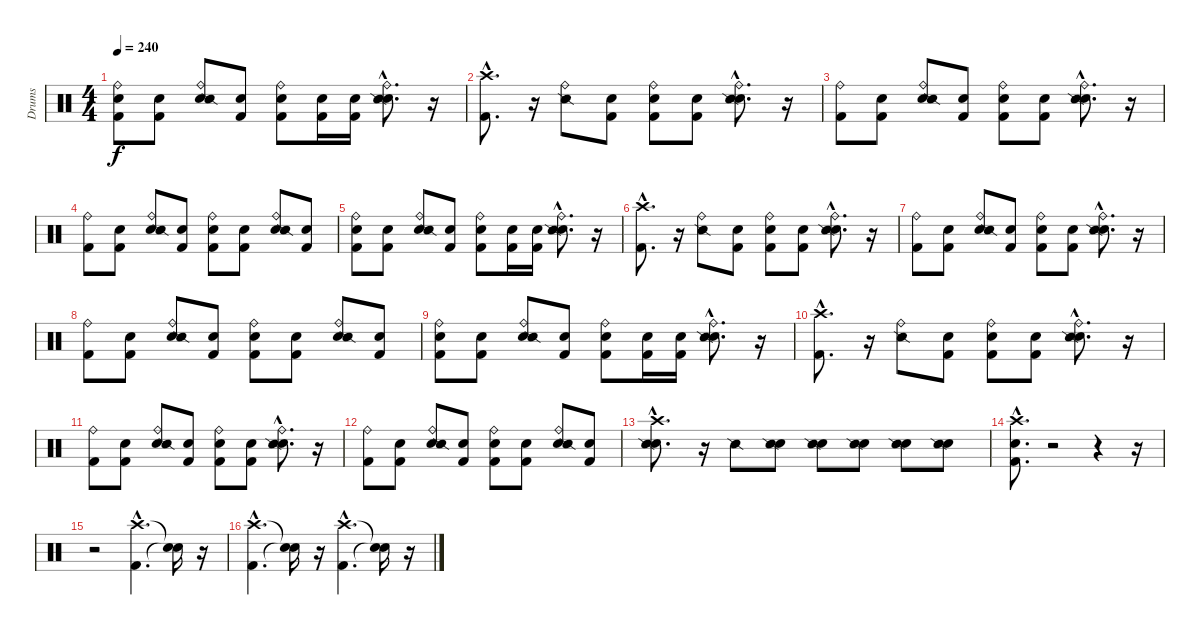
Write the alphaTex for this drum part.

\track ("Drums" "Drums") {instrument percussion}
\staff {score}
\articulation defaults
\ts (4 4)
\tempo 240
\clef neutral
\ks c
("Snare (hit)" "Kick (hit) 2" "Ride (bell)").8{dy f} ("Snare (hit)" "Kick (hit) 2").8 ("Snare (hit)" "Ride (bell)" "Snare (side stick) 2").8 ("Snare (hit)" "Kick (hit) 2").8 ("Snare (hit)" "Kick (hit) 2" "Ride (bell)").8 ("Snare (hit)" "Kick (hit) 2").16 ("Snare (hit)" "Kick (hit) 2").16 ("Snare (hit)"{hac} "Snare (side stick) 2"{hac} "Ride (bell)"{hac}).8{d} r.16 |
("Kick (hit) 2"{hac} "Crash high (hit)"{hac}).8{d} r.16 ("Ride (bell)" "Snare (side stick) 2").8 ("Snare (hit)" "Kick (hit) 2").8 ("Snare (hit)" "Kick (hit) 2" "Ride (bell)").8 ("Snare (hit)" "Kick (hit) 2").8 ("Snare (hit)"{hac} "Snare (side stick) 2"{hac} "Ride (bell)"{hac}).8{d} r.16 |
("Kick (hit) 2" "Ride (bell)").8 ("Snare (hit)" "Kick (hit) 2").8 ("Snare (hit)" "Ride (bell)" "Snare (side stick) 2").8 ("Snare (hit)" "Kick (hit) 2").8 ("Snare (hit)" "Kick (hit) 2" "Ride (bell)").8 ("Snare (hit)" "Kick (hit) 2").8 ("Snare (hit)"{hac} "Snare (side stick) 2"{hac} "Ride (bell)"{hac}).8{d} r.16 |
("Kick (hit) 2" "Ride (bell)").8 ("Snare (hit)" "Kick (hit) 2").8 ("Snare (hit)" "Ride (bell)" "Snare (side stick) 2").8 ("Snare (hit)" "Kick (hit) 2").8 ("Snare (hit)" "Kick (hit) 2" "Ride (bell)").8 ("Snare (hit)" "Kick (hit) 2").8 ("Snare (hit)" "Ride (bell)" "Snare (side stick) 2").8 ("Snare (hit)" "Kick (hit) 2").8 |
("Snare (hit)" "Kick (hit) 2" "Ride (bell)").8 ("Snare (hit)" "Kick (hit) 2").8 ("Snare (hit)" "Ride (bell)" "Snare (side stick) 2").8 ("Snare (hit)" "Kick (hit) 2").8 ("Snare (hit)" "Kick (hit) 2" "Ride (bell)").8 ("Snare (hit)" "Kick (hit) 2").16 ("Snare (hit)" "Kick (hit) 2").16 ("Snare (hit)"{hac} "Snare (side stick) 2"{hac} "Ride (bell)"{hac}).8{d} r.16 |
("Kick (hit) 2"{hac} "Crash high (hit)"{hac}).8{d} r.16 ("Ride (bell)" "Snare (side stick) 2").8 ("Snare (hit)" "Kick (hit) 2").8 ("Snare (hit)" "Kick (hit) 2" "Ride (bell)").8 ("Snare (hit)" "Kick (hit) 2").8 ("Snare (hit)"{hac} "Snare (side stick) 2"{hac} "Ride (bell)"{hac}).8{d} r.16 |
("Kick (hit) 2" "Ride (bell)").8 ("Snare (hit)" "Kick (hit) 2").8 ("Snare (hit)" "Ride (bell)" "Snare (side stick) 2").8 ("Snare (hit)" "Kick (hit) 2").8 ("Snare (hit)" "Kick (hit) 2" "Ride (bell)").8 ("Snare (hit)" "Kick (hit) 2").8 ("Snare (hit)"{hac} "Snare (side stick) 2"{hac} "Ride (bell)"{hac}).8{d} r.16 |
("Kick (hit) 2" "Ride (bell)").8 ("Snare (hit)" "Kick (hit) 2").8 ("Snare (hit)" "Ride (bell)" "Snare (side stick) 2").8 ("Snare (hit)" "Kick (hit) 2").8 ("Snare (hit)" "Kick (hit) 2" "Ride (bell)").8 ("Snare (hit)" "Kick (hit) 2").8 ("Snare (hit)" "Ride (bell)" "Snare (side stick) 2").8 ("Snare (hit)" "Kick (hit) 2").8 |
("Snare (hit)" "Kick (hit) 2" "Ride (bell)").8 ("Snare (hit)" "Kick (hit) 2").8 ("Snare (hit)" "Ride (bell)" "Snare (side stick) 2").8 ("Snare (hit)" "Kick (hit) 2").8 ("Snare (hit)" "Kick (hit) 2" "Ride (bell)").8 ("Snare (hit)" "Kick (hit) 2").16 ("Snare (hit)" "Kick (hit) 2").16 ("Snare (hit)"{hac} "Snare (side stick) 2"{hac} "Ride (bell)"{hac}).8{d} r.16 |
("Kick (hit) 2"{hac} "Crash high (hit)"{hac}).8{d} r.16 ("Ride (bell)" "Snare (side stick) 2").8 ("Snare (hit)" "Kick (hit) 2").8 ("Snare (hit)" "Kick (hit) 2" "Ride (bell)").8 ("Snare (hit)" "Kick (hit) 2").8 ("Snare (hit)"{hac} "Snare (side stick) 2"{hac} "Ride (bell)"{hac}).8{d} r.16 |
("Kick (hit) 2" "Ride (bell)").8 ("Snare (hit)" "Kick (hit) 2").8 ("Snare (hit)" "Ride (bell)" "Snare (side stick) 2").8 ("Snare (hit)" "Kick (hit) 2").8 ("Snare (hit)" "Kick (hit) 2" "Ride (bell)").8 ("Snare (hit)" "Kick (hit) 2").8 ("Snare (hit)"{hac} "Snare (side stick) 2"{hac} "Ride (bell)"{hac}).8{d} r.16 |
("Kick (hit) 2" "Ride (bell)").8 ("Snare (hit)" "Kick (hit) 2").8 ("Snare (hit)" "Ride (bell)" "Snare (side stick) 2").8 ("Snare (hit)" "Kick (hit) 2").8 ("Snare (hit)" "Kick (hit) 2" "Ride (bell)").8 ("Snare (hit)" "Kick (hit) 2").8 ("Snare (hit)" "Ride (bell)" "Snare (side stick) 2").8 ("Snare (hit)" "Kick (hit) 2").8 |
("Snare (hit)"{hac} "Snare (side stick) 2"{hac} "Crash high (hit)"{hac}).8{d} r.16 "Snare (side stick) 2".8 ("Snare (hit)" "Snare (side stick) 2").8 ("Snare (hit)" "Snare (side stick) 2").8 ("Snare (hit)" "Snare (side stick) 2").8 ("Snare (hit)" "Snare (side stick) 2").8 ("Snare (hit)" "Snare (side stick) 2").8 |
("Snare (hit)"{hac} "Kick (hit) 2"{hac} "Crash high (hit)"{hac}).8{d} r.2 r.4 r.16 |
r.2 ("Kick (hit) 2"{hac} "Crash high (hit)"{hac}).4{d} ("Snare (hit)"{t} "Snare (hit)"{t}).16 r.16 |
("Kick (hit) 2"{hac} "Crash high (hit)"{hac}).4{d} ("Snare (hit)"{t} "Snare (hit)"{t}).16 r.16 ("Kick (hit) 2"{hac} "Crash high (hit)"{hac}).4{d} ("Snare (hit)"{t} "Snare (hit)"{t}).16 r.16
